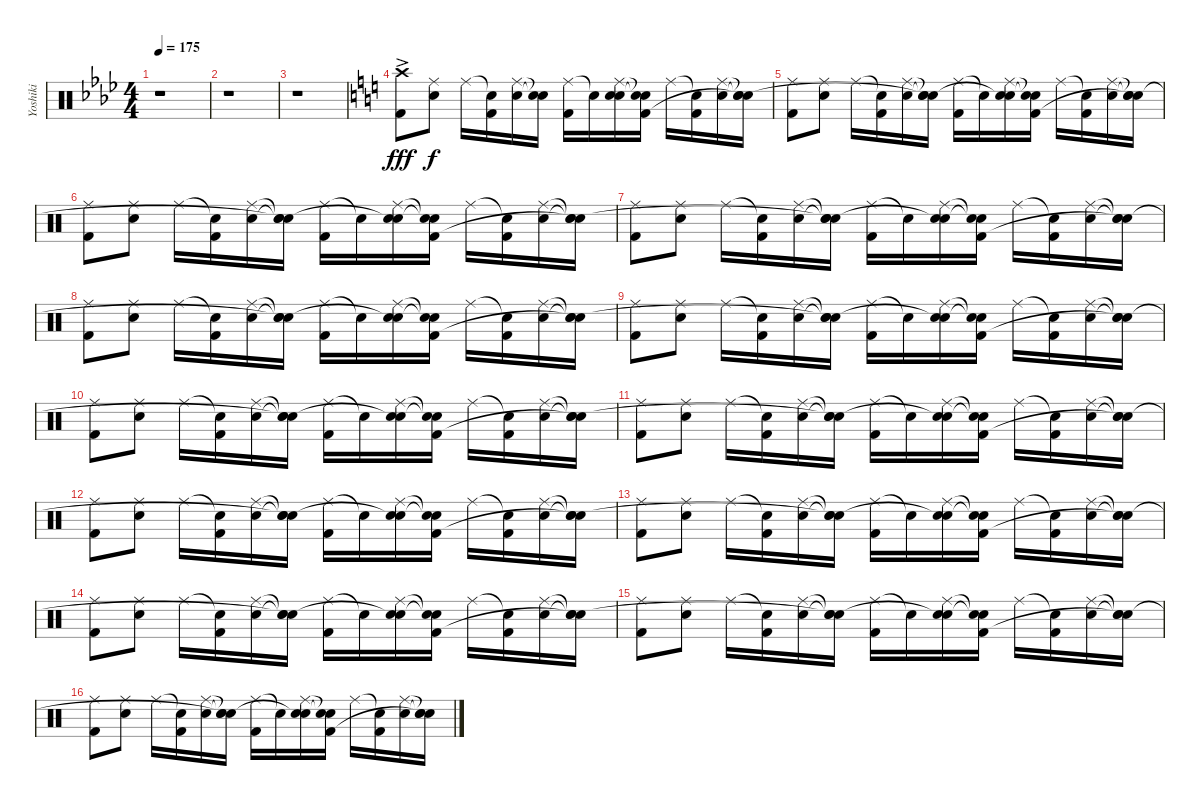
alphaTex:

\track ("Yoshiki" "Yoshiki") {instrument percussion}
\staff {score}
\articulation defaults
\ts (4 4)
\tempo 175
\clef neutral
\ks ab
r.1{dy f} |
r.1 |
r.1 |
\ks c
("Crash high (hit)"{ac} "Kick (hit) 2"{ac}).8{dy fff} ("Ride (middle)" "Snare (hit) 2").8{dy f} "Ride (middle)".16 ("Snare (hit)"{t} "Kick (hit) 2").16 ("Ride (middle)" "Snare (hit) 2").16 ("Snare (hit)"{t} "Snare (hit)"{t}).16 ("Ride (middle)" "Kick (hit) 2").16 "Snare (hit)"{t}.16 ("Ride (middle)" "Snare (hit) 2" "Snare (hit)").16 ("Snare (hit)"{t} "Snare (hit)"{t} "Kick (hit) 2").16 "Ride (middle)".16 ("Snare (hit)"{t} "Kick (hit) 2").16 ("Ride (middle)" "Snare (hit) 2").16 ("Snare (hit)"{t} "Snare (hit)"{t} "Snare (hit)"{t}).16 |
("Ride (middle)" "Kick (hit) 2").8 ("Ride (middle)" "Snare (hit) 2").8 "Ride (middle)".16 ("Snare (hit)"{t} "Kick (hit) 2").16 ("Ride (middle)" "Snare (hit) 2").16 ("Snare (hit)"{t} "Snare (hit)"{t} "Snare (hit)"{t}).16 ("Ride (middle)" "Kick (hit) 2").16 "Snare (hit)"{t}.16 ("Ride (middle)" "Snare (hit) 2" "Snare (hit)"{t}).16 ("Snare (hit)"{t} "Snare (hit)"{t} "Kick (hit) 2").16 "Ride (middle)".16 ("Snare (hit)"{t} "Kick (hit) 2").16 ("Ride (middle)" "Snare (hit) 2").16 ("Snare (hit)"{t} "Snare (hit)"{t} "Snare (hit)"{t}).16 |
("Ride (middle)" "Kick (hit) 2").8 ("Ride (middle)" "Snare (hit) 2").8 "Ride (middle)".16 ("Snare (hit)"{t} "Kick (hit) 2").16 ("Ride (middle)" "Snare (hit) 2").16 ("Snare (hit)"{t} "Snare (hit)"{t} "Snare (hit)"{t}).16 ("Ride (middle)" "Kick (hit) 2").16 "Snare (hit)"{t}.16 ("Ride (middle)" "Snare (hit) 2" "Snare (hit)"{t}).16 ("Snare (hit)"{t} "Snare (hit)"{t} "Kick (hit) 2").16 "Ride (middle)".16 ("Snare (hit)"{t} "Kick (hit) 2").16 ("Ride (middle)" "Snare (hit) 2").16 ("Snare (hit)"{t} "Snare (hit)"{t} "Snare (hit)"{t}).16 |
("Ride (middle)" "Kick (hit) 2").8 ("Ride (middle)" "Snare (hit) 2").8 "Ride (middle)".16 ("Snare (hit)"{t} "Kick (hit) 2").16 ("Ride (middle)" "Snare (hit) 2").16 ("Snare (hit)"{t} "Snare (hit)"{t} "Snare (hit)"{t}).16 ("Ride (middle)" "Kick (hit) 2").16 "Snare (hit)"{t}.16 ("Ride (middle)" "Snare (hit) 2" "Snare (hit)"{t}).16 ("Snare (hit)"{t} "Snare (hit)"{t} "Kick (hit) 2").16 "Ride (middle)".16 ("Snare (hit)"{t} "Kick (hit) 2").16 ("Ride (middle)" "Snare (hit) 2").16 ("Snare (hit)"{t} "Snare (hit)"{t} "Snare (hit)"{t}).16 |
("Ride (middle)" "Kick (hit) 2").8 ("Ride (middle)" "Snare (hit) 2").8 "Ride (middle)".16 ("Snare (hit)"{t} "Kick (hit) 2").16 ("Ride (middle)" "Snare (hit) 2").16 ("Snare (hit)"{t} "Snare (hit)"{t} "Snare (hit)"{t}).16 ("Ride (middle)" "Kick (hit) 2").16 "Snare (hit)"{t}.16 ("Ride (middle)" "Snare (hit) 2" "Snare (hit)"{t}).16 ("Snare (hit)"{t} "Snare (hit)"{t} "Kick (hit) 2").16 "Ride (middle)".16 ("Snare (hit)"{t} "Kick (hit) 2").16 ("Ride (middle)" "Snare (hit) 2").16 ("Snare (hit)"{t} "Snare (hit)"{t} "Snare (hit)"{t}).16 |
("Ride (middle)" "Kick (hit) 2").8 ("Ride (middle)" "Snare (hit) 2").8 "Ride (middle)".16 ("Snare (hit)"{t} "Kick (hit) 2").16 ("Ride (middle)" "Snare (hit) 2").16 ("Snare (hit)"{t} "Snare (hit)"{t} "Snare (hit)"{t}).16 ("Ride (middle)" "Kick (hit) 2").16 "Snare (hit)"{t}.16 ("Ride (middle)" "Snare (hit) 2" "Snare (hit)"{t}).16 ("Snare (hit)"{t} "Snare (hit)"{t} "Kick (hit) 2").16 "Ride (middle)".16 ("Snare (hit)"{t} "Kick (hit) 2").16 ("Ride (middle)" "Snare (hit) 2").16 ("Snare (hit)"{t} "Snare (hit)"{t} "Snare (hit)"{t}).16 |
("Ride (middle)" "Kick (hit) 2").8 ("Ride (middle)" "Snare (hit) 2").8 "Ride (middle)".16 ("Snare (hit)"{t} "Kick (hit) 2").16 ("Ride (middle)" "Snare (hit) 2").16 ("Snare (hit)"{t} "Snare (hit)"{t} "Snare (hit)"{t}).16 ("Ride (middle)" "Kick (hit) 2").16 "Snare (hit)"{t}.16 ("Ride (middle)" "Snare (hit) 2" "Snare (hit)"{t}).16 ("Snare (hit)"{t} "Snare (hit)"{t} "Kick (hit) 2").16 "Ride (middle)".16 ("Snare (hit)"{t} "Kick (hit) 2").16 ("Ride (middle)" "Snare (hit) 2").16 ("Snare (hit)"{t} "Snare (hit)"{t} "Snare (hit)"{t}).16 |
("Ride (middle)" "Kick (hit) 2").8 ("Ride (middle)" "Snare (hit) 2").8 "Ride (middle)".16 ("Snare (hit)"{t} "Kick (hit) 2").16 ("Ride (middle)" "Snare (hit) 2").16 ("Snare (hit)"{t} "Snare (hit)"{t} "Snare (hit)"{t}).16 ("Ride (middle)" "Kick (hit) 2").16 "Snare (hit)"{t}.16 ("Ride (middle)" "Snare (hit) 2" "Snare (hit)"{t}).16 ("Snare (hit)"{t} "Snare (hit)"{t} "Kick (hit) 2").16 "Ride (middle)".16 ("Snare (hit)"{t} "Kick (hit) 2").16 ("Ride (middle)" "Snare (hit) 2").16 ("Snare (hit)"{t} "Snare (hit)"{t} "Snare (hit)"{t}).16 |
("Ride (middle)" "Kick (hit) 2").8 ("Ride (middle)" "Snare (hit) 2").8 "Ride (middle)".16 ("Snare (hit)"{t} "Kick (hit) 2").16 ("Ride (middle)" "Snare (hit) 2").16 ("Snare (hit)"{t} "Snare (hit)"{t} "Snare (hit)"{t}).16 ("Ride (middle)" "Kick (hit) 2").16 "Snare (hit)"{t}.16 ("Ride (middle)" "Snare (hit) 2" "Snare (hit)"{t}).16 ("Snare (hit)"{t} "Snare (hit)"{t} "Kick (hit) 2").16 "Ride (middle)".16 ("Snare (hit)"{t} "Kick (hit) 2").16 ("Ride (middle)" "Snare (hit) 2").16 ("Snare (hit)"{t} "Snare (hit)"{t} "Snare (hit)"{t}).16 |
("Ride (middle)" "Kick (hit) 2").8 ("Ride (middle)" "Snare (hit) 2").8 "Ride (middle)".16 ("Snare (hit)"{t} "Kick (hit) 2").16 ("Ride (middle)" "Snare (hit) 2").16 ("Snare (hit)"{t} "Snare (hit)"{t} "Snare (hit)"{t}).16 ("Ride (middle)" "Kick (hit) 2").16 "Snare (hit)"{t}.16 ("Ride (middle)" "Snare (hit) 2" "Snare (hit)"{t}).16 ("Snare (hit)"{t} "Snare (hit)"{t} "Kick (hit) 2").16 "Ride (middle)".16 ("Snare (hit)"{t} "Kick (hit) 2").16 ("Ride (middle)" "Snare (hit) 2").16 ("Snare (hit)"{t} "Snare (hit)"{t} "Snare (hit)"{t}).16 |
("Ride (middle)" "Kick (hit) 2").8 ("Ride (middle)" "Snare (hit) 2").8 "Ride (middle)".16 ("Snare (hit)"{t} "Kick (hit) 2").16 ("Ride (middle)" "Snare (hit) 2").16 ("Snare (hit)"{t} "Snare (hit)"{t} "Snare (hit)"{t}).16 ("Ride (middle)" "Kick (hit) 2").16 "Snare (hit)"{t}.16 ("Ride (middle)" "Snare (hit) 2" "Snare (hit)"{t}).16 ("Snare (hit)"{t} "Snare (hit)"{t} "Kick (hit) 2").16 "Ride (middle)".16 ("Snare (hit)"{t} "Kick (hit) 2").16 ("Ride (middle)" "Snare (hit) 2").16 ("Snare (hit)"{t} "Snare (hit)"{t} "Snare (hit)"{t}).16 |
("Ride (middle)" "Kick (hit) 2").8 ("Ride (middle)" "Snare (hit) 2").8 "Ride (middle)".16 ("Snare (hit)"{t} "Kick (hit) 2").16 ("Ride (middle)" "Snare (hit) 2").16 ("Snare (hit)"{t} "Snare (hit)"{t} "Snare (hit)"{t}).16 ("Ride (middle)" "Kick (hit) 2").16 "Snare (hit)"{t}.16 ("Ride (middle)" "Snare (hit) 2" "Snare (hit)"{t}).16 ("Snare (hit)"{t} "Snare (hit)"{t} "Kick (hit) 2").16 "Ride (middle)".16 ("Snare (hit)"{t} "Kick (hit) 2").16 ("Ride (middle)" "Snare (hit) 2").16 ("Snare (hit)"{t} "Snare (hit)"{t} "Snare (hit)"{t}).16 |
("Ride (middle)" "Kick (hit) 2").8 ("Ride (middle)" "Snare (hit) 2").8 "Ride (middle)".16 ("Snare (hit)"{t} "Kick (hit) 2").16 ("Ride (middle)" "Snare (hit) 2").16 ("Snare (hit)"{t} "Snare (hit)"{t} "Snare (hit)"{t}).16 ("Ride (middle)" "Kick (hit) 2").16 "Snare (hit)"{t}.16 ("Ride (middle)" "Snare (hit) 2" "Snare (hit)"{t}).16 ("Snare (hit)"{t} "Snare (hit)"{t} "Kick (hit) 2").16 "Ride (middle)".16 ("Snare (hit)"{t} "Kick (hit) 2").16 ("Ride (middle)" "Snare (hit) 2").16 ("Snare (hit)"{t} "Snare (hit)"{t} "Snare (hit)"{t}).16
